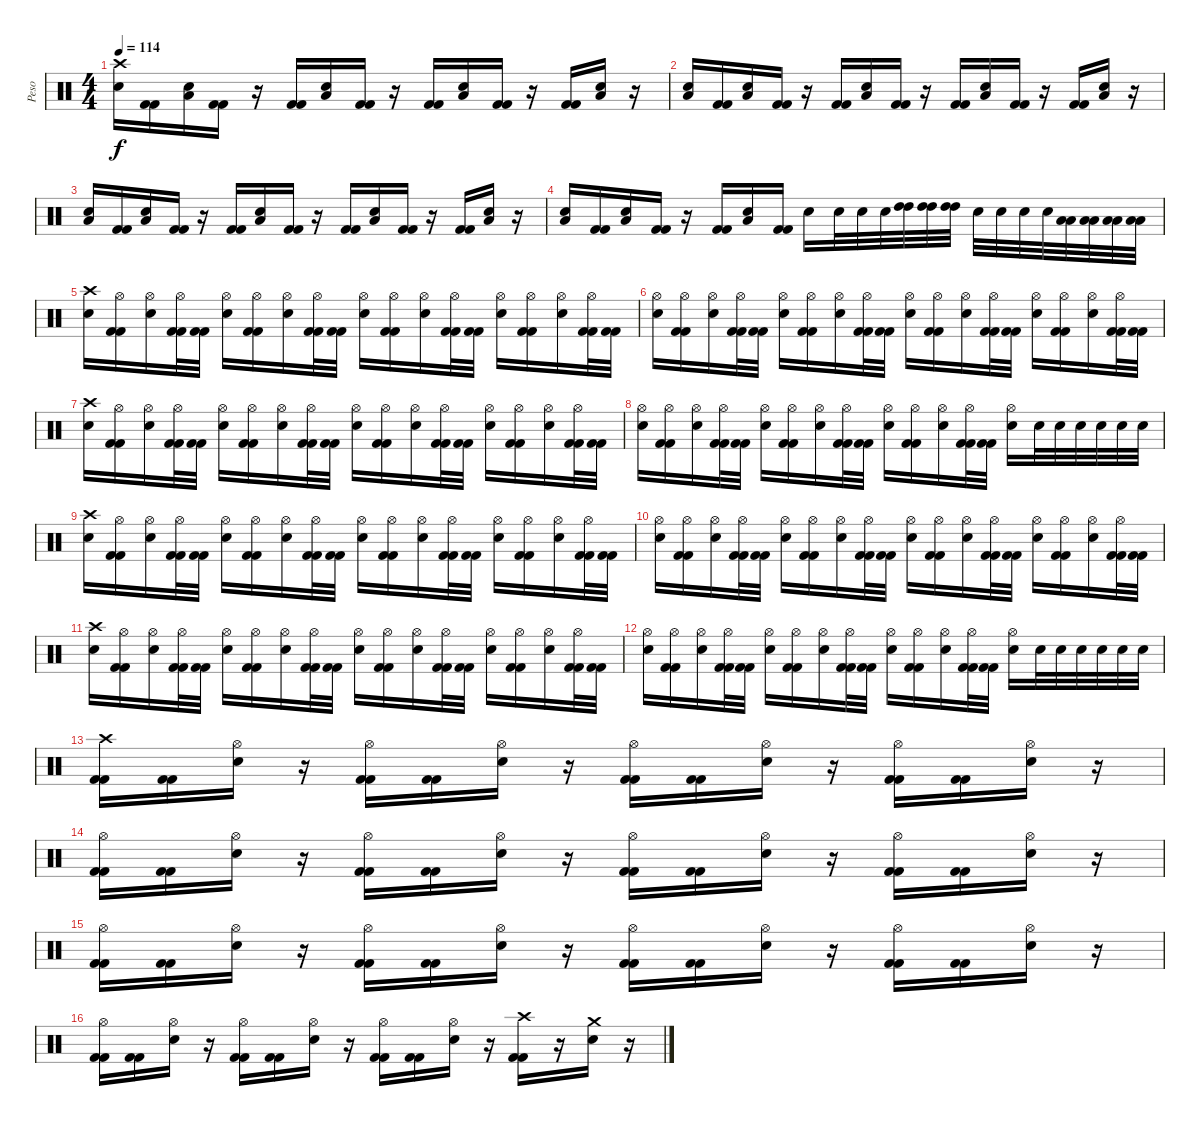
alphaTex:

\track ("Peso" "Peso") {instrument percussion}
\staff {score}
\articulation defaults
\ts (4 4)
\tempo 114
\clef neutral
\ks c
("Crash high (hit)" "Electric Snare (hit)").16{dy f} ("Kick (hit) 2" "Kick (hit) 2").16 ("Low Floor Tom (hit)" "Electric Snare (hit)").16 ("Kick (hit) 2" "Kick (hit) 2").16 r.16 ("Kick (hit) 2" "Kick (hit) 2").16 ("Low Floor Tom (hit)" "Electric Snare (hit)").16 ("Kick (hit) 2" "Kick (hit) 2").16 r.16 ("Kick (hit) 2" "Kick (hit) 2").16 ("Low Floor Tom (hit)" "Electric Snare (hit)").16 ("Kick (hit) 2" "Kick (hit) 2").16 r.16 ("Kick (hit) 2" "Kick (hit) 2").16 ("Low Floor Tom (hit)" "Electric Snare (hit)").16 r.16 |
("Low Floor Tom (hit)" "Electric Snare (hit)").16 ("Kick (hit) 2" "Kick (hit) 2").16 ("Low Floor Tom (hit)" "Electric Snare (hit)").16 ("Kick (hit) 2" "Kick (hit) 2").16 r.16 ("Kick (hit) 2" "Kick (hit) 2").16 ("Low Floor Tom (hit)" "Electric Snare (hit)").16 ("Kick (hit) 2" "Kick (hit) 2").16 r.16 ("Kick (hit) 2" "Kick (hit) 2").16 ("Low Floor Tom (hit)" "Electric Snare (hit)").16 ("Kick (hit) 2" "Kick (hit) 2").16 r.16 ("Kick (hit) 2" "Kick (hit) 2").16 ("Low Floor Tom (hit)" "Electric Snare (hit)").16 r.16 |
("Low Floor Tom (hit)" "Electric Snare (hit)").16 ("Kick (hit) 2" "Kick (hit) 2").16 ("Low Floor Tom (hit)" "Electric Snare (hit)").16 ("Kick (hit) 2" "Kick (hit) 2").16 r.16 ("Kick (hit) 2" "Kick (hit) 2").16 ("Low Floor Tom (hit)" "Electric Snare (hit)").16 ("Kick (hit) 2" "Kick (hit) 2").16 r.16 ("Kick (hit) 2" "Kick (hit) 2").16 ("Low Floor Tom (hit)" "Electric Snare (hit)").16 ("Kick (hit) 2" "Kick (hit) 2").16 r.16 ("Kick (hit) 2" "Kick (hit) 2").16 ("Low Floor Tom (hit)" "Electric Snare (hit)").16 r.16 |
("Low Floor Tom (hit)" "Electric Snare (hit)").16 ("Kick (hit) 2" "Kick (hit) 2").16 ("Low Floor Tom (hit)" "Electric Snare (hit)").16 ("Kick (hit) 2" "Kick (hit) 2").16 r.16 ("Kick (hit) 2" "Kick (hit) 2").16 ("Low Floor Tom (hit)" "Electric Snare (hit)").16 ("Kick (hit) 2" "Kick (hit) 2").16 "Electric Snare (hit)".16 "Electric Snare (hit)".32 "Electric Snare (hit)".32 "Electric Snare (hit)".32 ("High Tom (hit)" "High Tom (hit)").32{volume 16} ("High Tom (hit)" "High Tom (hit)").32 ("High Tom (hit)" "High Tom (hit)").32 "Electric Snare (hit)".32{volume 15} "Electric Snare (hit)".32 "Electric Snare (hit)".32 "Electric Snare (hit)".32 ("Low Floor Tom (hit)" "Low Floor Tom (hit)").32{volume 16} ("Low Floor Tom (hit)" "Low Floor Tom (hit)").32 ("Low Floor Tom (hit)" "Low Floor Tom (hit)").32 ("Low Floor Tom (hit)" "Low Floor Tom (hit)").32 |
("Crash high (hit)" "Electric Snare (hit)").16{volume 15} ("Hi-Hat (open)" "Kick (hit) 2" "Kick (hit) 2").16 ("Hi-Hat (open)" "Electric Snare (hit)").16 ("Hi-Hat (open)" "Kick (hit) 2" "Kick (hit) 2").32 ("Kick (hit) 2" "Kick (hit) 2").32 ("Hi-Hat (open)" "Electric Snare (hit)").16 ("Hi-Hat (open)" "Kick (hit) 2" "Kick (hit) 2").16 ("Hi-Hat (open)" "Electric Snare (hit)").16 ("Hi-Hat (open)" "Kick (hit) 2" "Kick (hit) 2").32 ("Kick (hit) 2" "Kick (hit) 2").32 ("Hi-Hat (open)" "Electric Snare (hit)").16 ("Hi-Hat (open)" "Kick (hit) 2" "Kick (hit) 2").16 ("Hi-Hat (open)" "Electric Snare (hit)").16 ("Hi-Hat (open)" "Kick (hit) 2" "Kick (hit) 2").32 ("Kick (hit) 2" "Kick (hit) 2").32 ("Hi-Hat (open)" "Electric Snare (hit)").16 ("Hi-Hat (open)" "Kick (hit) 2" "Kick (hit) 2").16 ("Hi-Hat (open)" "Electric Snare (hit)").16 ("Hi-Hat (open)" "Kick (hit) 2" "Kick (hit) 2").32 ("Kick (hit) 2" "Kick (hit) 2").32 |
("Hi-Hat (open)" "Electric Snare (hit)").16 ("Hi-Hat (open)" "Kick (hit) 2" "Kick (hit) 2").16 ("Hi-Hat (open)" "Electric Snare (hit)").16 ("Hi-Hat (open)" "Kick (hit) 2" "Kick (hit) 2").32 ("Kick (hit) 2" "Kick (hit) 2").32 ("Hi-Hat (open)" "Electric Snare (hit)").16 ("Hi-Hat (open)" "Kick (hit) 2" "Kick (hit) 2").16 ("Hi-Hat (open)" "Electric Snare (hit)").16 ("Hi-Hat (open)" "Kick (hit) 2" "Kick (hit) 2").32 ("Kick (hit) 2" "Kick (hit) 2").32 ("Hi-Hat (open)" "Electric Snare (hit)").16 ("Hi-Hat (open)" "Kick (hit) 2" "Kick (hit) 2").16 ("Hi-Hat (open)" "Electric Snare (hit)").16 ("Hi-Hat (open)" "Kick (hit) 2" "Kick (hit) 2").32 ("Kick (hit) 2" "Kick (hit) 2").32 ("Hi-Hat (open)" "Electric Snare (hit)").16 ("Hi-Hat (open)" "Kick (hit) 2" "Kick (hit) 2").16 ("Hi-Hat (open)" "Electric Snare (hit)").16 ("Hi-Hat (open)" "Kick (hit) 2" "Kick (hit) 2").32 ("Kick (hit) 2" "Kick (hit) 2").32 |
("Crash high (hit)" "Electric Snare (hit)").16 ("Hi-Hat (open)" "Kick (hit) 2" "Kick (hit) 2").16 ("Hi-Hat (open)" "Electric Snare (hit)").16 ("Hi-Hat (open)" "Kick (hit) 2" "Kick (hit) 2").32 ("Kick (hit) 2" "Kick (hit) 2").32 ("Hi-Hat (open)" "Electric Snare (hit)").16 ("Hi-Hat (open)" "Kick (hit) 2" "Kick (hit) 2").16 ("Hi-Hat (open)" "Electric Snare (hit)").16 ("Hi-Hat (open)" "Kick (hit) 2" "Kick (hit) 2").32 ("Kick (hit) 2" "Kick (hit) 2").32 ("Hi-Hat (open)" "Electric Snare (hit)").16 ("Hi-Hat (open)" "Kick (hit) 2" "Kick (hit) 2").16 ("Hi-Hat (open)" "Electric Snare (hit)").16 ("Hi-Hat (open)" "Kick (hit) 2" "Kick (hit) 2").32 ("Kick (hit) 2" "Kick (hit) 2").32 ("Hi-Hat (open)" "Electric Snare (hit)").16 ("Hi-Hat (open)" "Kick (hit) 2" "Kick (hit) 2").16 ("Hi-Hat (open)" "Electric Snare (hit)").16 ("Hi-Hat (open)" "Kick (hit) 2" "Kick (hit) 2").32 ("Kick (hit) 2" "Kick (hit) 2").32 |
("Hi-Hat (open)" "Electric Snare (hit)").16 ("Hi-Hat (open)" "Kick (hit) 2" "Kick (hit) 2").16 ("Hi-Hat (open)" "Electric Snare (hit)").16 ("Hi-Hat (open)" "Kick (hit) 2" "Kick (hit) 2").32 ("Kick (hit) 2" "Kick (hit) 2").32 ("Hi-Hat (open)" "Electric Snare (hit)").16 ("Hi-Hat (open)" "Kick (hit) 2" "Kick (hit) 2").16 ("Hi-Hat (open)" "Electric Snare (hit)").16 ("Hi-Hat (open)" "Kick (hit) 2" "Kick (hit) 2").32 ("Kick (hit) 2" "Kick (hit) 2").32 ("Hi-Hat (open)" "Electric Snare (hit)").16 ("Hi-Hat (open)" "Kick (hit) 2" "Kick (hit) 2").16 ("Hi-Hat (open)" "Electric Snare (hit)").16 ("Hi-Hat (open)" "Kick (hit) 2" "Kick (hit) 2").32 ("Kick (hit) 2" "Kick (hit) 2").32 ("Hi-Hat (open)" "Electric Snare (hit)").16 "Electric Snare (hit)".32 "Electric Snare (hit)".32 "Electric Snare (hit)".32 "Electric Snare (hit)".32 "Electric Snare (hit)".32 "Electric Snare (hit)".32 |
("Crash high (hit)" "Electric Snare (hit)").16 ("Hi-Hat (open)" "Kick (hit) 2" "Kick (hit) 2").16 ("Hi-Hat (open)" "Electric Snare (hit)").16 ("Hi-Hat (open)" "Kick (hit) 2" "Kick (hit) 2").32 ("Kick (hit) 2" "Kick (hit) 2").32 ("Hi-Hat (open)" "Electric Snare (hit)").16 ("Hi-Hat (open)" "Kick (hit) 2" "Kick (hit) 2").16 ("Hi-Hat (open)" "Electric Snare (hit)").16 ("Hi-Hat (open)" "Kick (hit) 2" "Kick (hit) 2").32 ("Kick (hit) 2" "Kick (hit) 2").32 ("Hi-Hat (open)" "Electric Snare (hit)").16 ("Hi-Hat (open)" "Kick (hit) 2" "Kick (hit) 2").16 ("Hi-Hat (open)" "Electric Snare (hit)").16 ("Hi-Hat (open)" "Kick (hit) 2" "Kick (hit) 2").32 ("Kick (hit) 2" "Kick (hit) 2").32 ("Hi-Hat (open)" "Electric Snare (hit)").16 ("Hi-Hat (open)" "Kick (hit) 2" "Kick (hit) 2").16 ("Hi-Hat (open)" "Electric Snare (hit)").16 ("Hi-Hat (open)" "Kick (hit) 2" "Kick (hit) 2").32 ("Kick (hit) 2" "Kick (hit) 2").32 |
("Hi-Hat (open)" "Electric Snare (hit)").16 ("Hi-Hat (open)" "Kick (hit) 2" "Kick (hit) 2").16 ("Hi-Hat (open)" "Electric Snare (hit)").16 ("Hi-Hat (open)" "Kick (hit) 2" "Kick (hit) 2").32 ("Kick (hit) 2" "Kick (hit) 2").32 ("Hi-Hat (open)" "Electric Snare (hit)").16 ("Hi-Hat (open)" "Kick (hit) 2" "Kick (hit) 2").16 ("Hi-Hat (open)" "Electric Snare (hit)").16 ("Hi-Hat (open)" "Kick (hit) 2" "Kick (hit) 2").32 ("Kick (hit) 2" "Kick (hit) 2").32 ("Hi-Hat (open)" "Electric Snare (hit)").16 ("Hi-Hat (open)" "Kick (hit) 2" "Kick (hit) 2").16 ("Hi-Hat (open)" "Electric Snare (hit)").16 ("Hi-Hat (open)" "Kick (hit) 2" "Kick (hit) 2").32 ("Kick (hit) 2" "Kick (hit) 2").32 ("Hi-Hat (open)" "Electric Snare (hit)").16 ("Hi-Hat (open)" "Kick (hit) 2" "Kick (hit) 2").16 ("Hi-Hat (open)" "Electric Snare (hit)").16 ("Hi-Hat (open)" "Kick (hit) 2" "Kick (hit) 2").32 ("Kick (hit) 2" "Kick (hit) 2").32 |
("Crash high (hit)" "Electric Snare (hit)").16 ("Hi-Hat (open)" "Kick (hit) 2" "Kick (hit) 2").16 ("Hi-Hat (open)" "Electric Snare (hit)").16 ("Hi-Hat (open)" "Kick (hit) 2" "Kick (hit) 2").32 ("Kick (hit) 2" "Kick (hit) 2").32 ("Hi-Hat (open)" "Electric Snare (hit)").16 ("Hi-Hat (open)" "Kick (hit) 2" "Kick (hit) 2").16 ("Hi-Hat (open)" "Electric Snare (hit)").16 ("Hi-Hat (open)" "Kick (hit) 2" "Kick (hit) 2").32 ("Kick (hit) 2" "Kick (hit) 2").32 ("Hi-Hat (open)" "Electric Snare (hit)").16 ("Hi-Hat (open)" "Kick (hit) 2" "Kick (hit) 2").16 ("Hi-Hat (open)" "Electric Snare (hit)").16 ("Hi-Hat (open)" "Kick (hit) 2" "Kick (hit) 2").32 ("Kick (hit) 2" "Kick (hit) 2").32 ("Hi-Hat (open)" "Electric Snare (hit)").16 ("Hi-Hat (open)" "Kick (hit) 2" "Kick (hit) 2").16 ("Hi-Hat (open)" "Electric Snare (hit)").16 ("Hi-Hat (open)" "Kick (hit) 2" "Kick (hit) 2").32 ("Kick (hit) 2" "Kick (hit) 2").32 |
("Hi-Hat (open)" "Electric Snare (hit)").16 ("Hi-Hat (open)" "Kick (hit) 2" "Kick (hit) 2").16 ("Hi-Hat (open)" "Electric Snare (hit)").16 ("Hi-Hat (open)" "Kick (hit) 2" "Kick (hit) 2").32 ("Kick (hit) 2" "Kick (hit) 2").32 ("Hi-Hat (open)" "Electric Snare (hit)").16 ("Hi-Hat (open)" "Kick (hit) 2" "Kick (hit) 2").16 ("Hi-Hat (open)" "Electric Snare (hit)").16 ("Hi-Hat (open)" "Kick (hit) 2" "Kick (hit) 2").32 ("Kick (hit) 2" "Kick (hit) 2").32 ("Hi-Hat (open)" "Electric Snare (hit)").16 ("Hi-Hat (open)" "Kick (hit) 2" "Kick (hit) 2").16 ("Hi-Hat (open)" "Electric Snare (hit)").16 ("Hi-Hat (open)" "Kick (hit) 2" "Kick (hit) 2").32 ("Kick (hit) 2" "Kick (hit) 2").32 ("Hi-Hat (open)" "Electric Snare (hit)").16 "Electric Snare (hit)".32 "Electric Snare (hit)".32 "Electric Snare (hit)".32 "Electric Snare (hit)".32 "Electric Snare (hit)".32 "Electric Snare (hit)".32 |
("Crash high (hit)" "Kick (hit) 2" "Kick (hit) 2").16{volume 15} ("Kick (hit) 2" "Kick (hit) 2").16 ("Hi-Hat (open)" "Electric Snare (hit)").16 r.16 ("Hi-Hat (open)" "Kick (hit) 2" "Kick (hit) 2").16 ("Kick (hit) 2" "Kick (hit) 2").16 ("Hi-Hat (open)" "Electric Snare (hit)").16 r.16 ("Hi-Hat (open)" "Kick (hit) 2" "Kick (hit) 2").16 ("Kick (hit) 2" "Kick (hit) 2").16 ("Hi-Hat (open)" "Electric Snare (hit)").16 r.16 ("Hi-Hat (open)" "Kick (hit) 2" "Kick (hit) 2").16 ("Kick (hit) 2" "Kick (hit) 2").16 ("Hi-Hat (open)" "Electric Snare (hit)").16 r.16 |
("Hi-Hat (open)" "Kick (hit) 2" "Kick (hit) 2").16 ("Kick (hit) 2" "Kick (hit) 2").16 ("Hi-Hat (open)" "Electric Snare (hit)").16 r.16 ("Hi-Hat (open)" "Kick (hit) 2" "Kick (hit) 2").16 ("Kick (hit) 2" "Kick (hit) 2").16 ("Hi-Hat (open)" "Electric Snare (hit)").16 r.16 ("Hi-Hat (open)" "Kick (hit) 2" "Kick (hit) 2").16 ("Kick (hit) 2" "Kick (hit) 2").16 ("Hi-Hat (open)" "Electric Snare (hit)").16 r.16 ("Hi-Hat (open)" "Kick (hit) 2" "Kick (hit) 2").16 ("Kick (hit) 2" "Kick (hit) 2").16 ("Hi-Hat (open)" "Electric Snare (hit)").16 r.16 |
("Hi-Hat (open)" "Kick (hit) 2" "Kick (hit) 2").16 ("Kick (hit) 2" "Kick (hit) 2").16 ("Hi-Hat (open)" "Electric Snare (hit)").16 r.16 ("Hi-Hat (open)" "Kick (hit) 2" "Kick (hit) 2").16 ("Kick (hit) 2" "Kick (hit) 2").16 ("Hi-Hat (open)" "Electric Snare (hit)").16 r.16 ("Hi-Hat (open)" "Kick (hit) 2" "Kick (hit) 2").16 ("Kick (hit) 2" "Kick (hit) 2").16 ("Hi-Hat (open)" "Electric Snare (hit)").16 r.16 ("Hi-Hat (open)" "Kick (hit) 2" "Kick (hit) 2").16 ("Kick (hit) 2" "Kick (hit) 2").16 ("Hi-Hat (open)" "Electric Snare (hit)").16 r.16 |
("Hi-Hat (open)" "Kick (hit) 2" "Kick (hit) 2").16 ("Kick (hit) 2" "Kick (hit) 2").16 ("Hi-Hat (open)" "Electric Snare (hit)").16 r.16 ("Hi-Hat (open)" "Kick (hit) 2" "Kick (hit) 2").16 ("Kick (hit) 2" "Kick (hit) 2").16 ("Hi-Hat (open)" "Electric Snare (hit)").16 r.16 ("Hi-Hat (open)" "Kick (hit) 2" "Kick (hit) 2").16 ("Kick (hit) 2" "Kick (hit) 2").16 ("Hi-Hat (open)" "Electric Snare (hit)").16 r.16 ("Crash high (hit)" "Kick (hit) 2" "Kick (hit) 2").16 r.16 ("Crash medium (hit)" "Electric Snare (hit)").16 r.16
